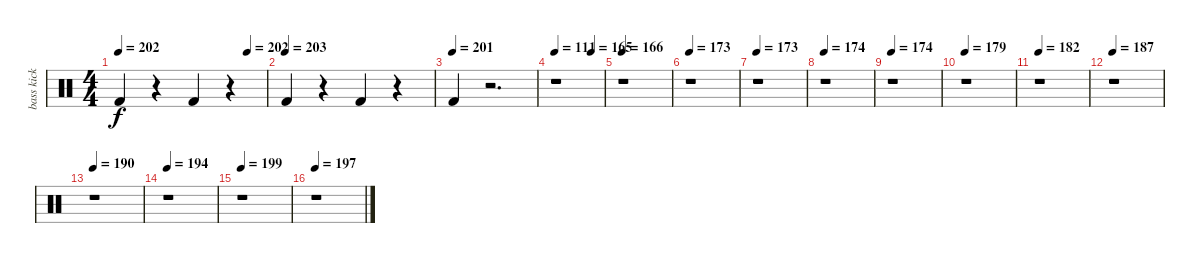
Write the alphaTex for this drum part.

\track ("bass kick" "bass kick") {instrument percussion}
\staff {score}
\articulation defaults
\ts (4 4)
\tempo 202
\tempo (202 0.875)
\clef neutral
\ks c "Kick (hit) 2".4{dy f}
r.4 "Kick (hit) 2".4 r.4 |
\tempo (203)
"Kick (hit) 2".4 r.4 "Kick (hit) 2".4 r.4 |
\tempo (201)
"Kick (hit) 2".4 r.2{d} |
\tempo 111
\tempo (165 0.75)
r.1 |
\tempo 166
r.1 |
\tempo 173
r.1 |
\tempo 173
r.1 |
\tempo 174
r.1 |
\tempo 174
r.1 |
\tempo 179
r.1 |
\tempo 182
r.1 |
\tempo 187
r.1 |
\tempo 190
r.1 |
\tempo 194
r.1 |
\tempo 199
r.1 |
\tempo 197
r.1
